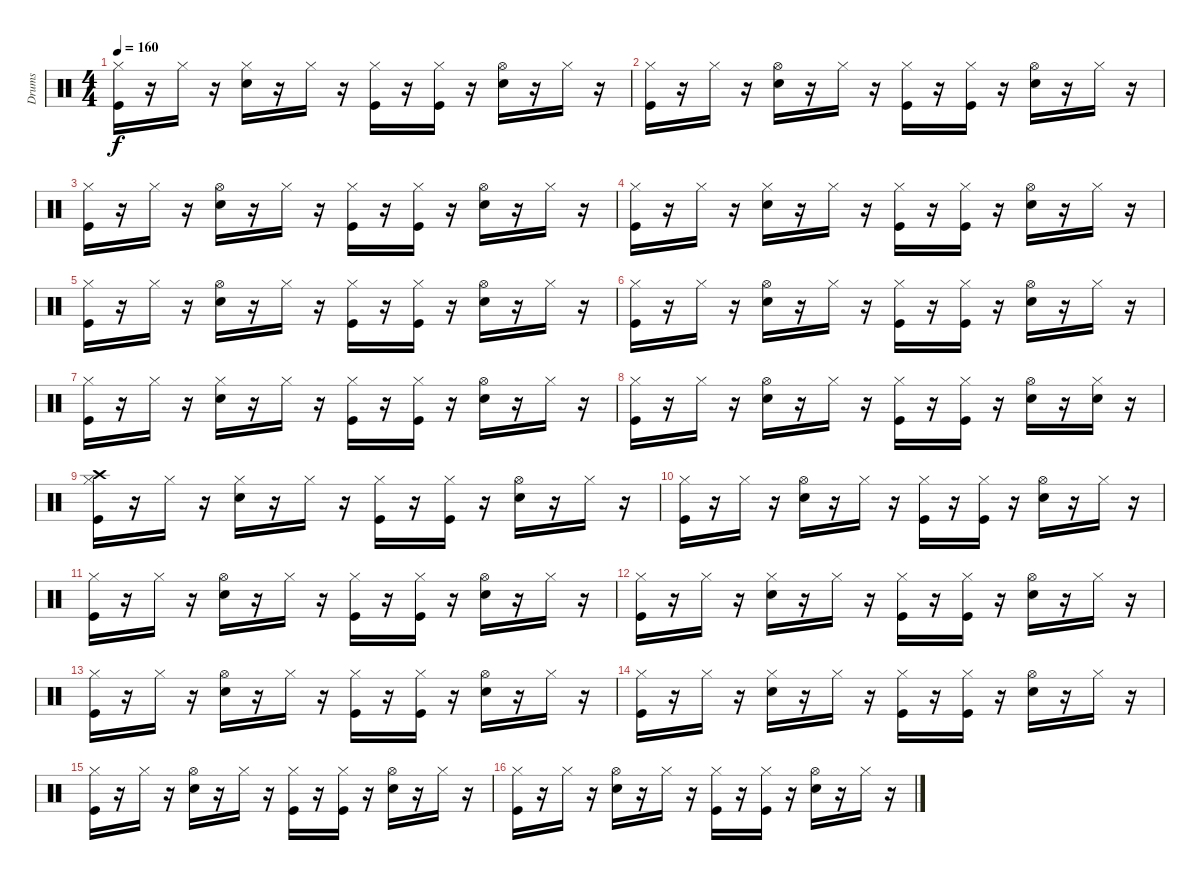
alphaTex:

\track ("Drums" "Drums") {instrument percussion}
\staff {score}
\articulation defaults
\ts (4 4)
\tempo 160
\clef neutral
\ks c
("Hi-Hat (closed)" "Kick (hit)").16{dy f} r.16 "Hi-Hat (closed)".16 r.16 ("Hi-Hat (closed)" "Snare (hit) 2").16 r.16 "Hi-Hat (closed)".16 r.16 ("Hi-Hat (closed)" "Kick (hit)").16 r.16 ("Kick (hit)" "Hi-Hat (closed)").16 r.16 ("Hi-Hat (open)" "Snare (hit) 2").16 r.16 "Hi-Hat (closed)".16 r.16 |
("Hi-Hat (closed)" "Kick (hit)").16 r.16 "Hi-Hat (closed)".16 r.16 ("Hi-Hat (open)" "Snare (hit) 2").16 r.16 "Hi-Hat (closed)".16 r.16 ("Hi-Hat (closed)" "Kick (hit)").16 r.16 ("Kick (hit)" "Hi-Hat (closed)").16 r.16 ("Hi-Hat (open)" "Snare (hit) 2").16 r.16 "Hi-Hat (closed)".16 r.16 |
("Hi-Hat (closed)" "Kick (hit)").16 r.16 "Hi-Hat (closed)".16 r.16 ("Hi-Hat (open)" "Snare (hit) 2").16 r.16 "Hi-Hat (closed)".16 r.16 ("Hi-Hat (closed)" "Kick (hit)").16 r.16 ("Kick (hit)" "Hi-Hat (closed)").16 r.16 ("Hi-Hat (open)" "Snare (hit) 2").16 r.16 "Hi-Hat (closed)".16 r.16 |
("Hi-Hat (closed)" "Kick (hit)").16 r.16 "Hi-Hat (closed)".16 r.16 ("Hi-Hat (closed)" "Snare (hit) 2").16 r.16 "Hi-Hat (closed)".16 r.16 ("Hi-Hat (closed)" "Kick (hit)").16 r.16 ("Kick (hit)" "Hi-Hat (closed)").16 r.16 ("Hi-Hat (open)" "Snare (hit) 2").16 r.16 "Hi-Hat (closed)".16 r.16 |
("Hi-Hat (closed)" "Kick (hit)").16 r.16 "Hi-Hat (closed)".16 r.16 ("Hi-Hat (open)" "Snare (hit) 2").16 r.16 "Hi-Hat (closed)".16 r.16 ("Hi-Hat (closed)" "Kick (hit)").16 r.16 ("Kick (hit)" "Hi-Hat (closed)").16 r.16 ("Hi-Hat (open)" "Snare (hit) 2").16 r.16 "Hi-Hat (closed)".16 r.16 |
("Hi-Hat (closed)" "Kick (hit)").16 r.16 "Hi-Hat (closed)".16 r.16 ("Hi-Hat (open)" "Snare (hit) 2").16 r.16 "Hi-Hat (closed)".16 r.16 ("Hi-Hat (closed)" "Kick (hit)").16 r.16 ("Kick (hit)" "Hi-Hat (closed)").16 r.16 ("Hi-Hat (open)" "Snare (hit) 2").16 r.16 "Hi-Hat (closed)".16 r.16 |
("Hi-Hat (closed)" "Kick (hit)").16 r.16 "Hi-Hat (closed)".16 r.16 ("Hi-Hat (closed)" "Snare (hit) 2").16 r.16 "Hi-Hat (closed)".16 r.16 ("Hi-Hat (closed)" "Kick (hit)").16 r.16 ("Kick (hit)" "Hi-Hat (closed)").16 r.16 ("Hi-Hat (open)" "Snare (hit) 2").16 r.16 "Hi-Hat (closed)".16 r.16 |
("Hi-Hat (closed)" "Kick (hit)").16 r.16 "Hi-Hat (closed)".16 r.16 ("Hi-Hat (open)" "Snare (hit) 2").16 r.16 "Hi-Hat (closed)".16 r.16 ("Hi-Hat (closed)" "Kick (hit)").16 r.16 ("Kick (hit)" "Hi-Hat (closed)").16 r.16 ("Hi-Hat (open)" "Snare (hit) 2").16 r.16 ("Snare (hit) 2" "Hi-Hat (closed)").16 r.16 |
("Crash high (hit)" "Hi-Hat (closed)" "Kick (hit)").16 r.16 "Hi-Hat (closed)".16 r.16 ("Hi-Hat (closed)" "Snare (hit) 2").16 r.16 "Hi-Hat (closed)".16 r.16 ("Hi-Hat (closed)" "Kick (hit)").16 r.16 ("Kick (hit)" "Hi-Hat (closed)").16 r.16 ("Hi-Hat (open)" "Snare (hit) 2").16 r.16 "Hi-Hat (closed)".16 r.16 |
("Hi-Hat (closed)" "Kick (hit)").16 r.16 "Hi-Hat (closed)".16 r.16 ("Hi-Hat (open)" "Snare (hit) 2").16 r.16 "Hi-Hat (closed)".16 r.16 ("Hi-Hat (closed)" "Kick (hit)").16 r.16 ("Kick (hit)" "Hi-Hat (closed)").16 r.16 ("Hi-Hat (open)" "Snare (hit) 2").16 r.16 "Hi-Hat (closed)".16 r.16 |
("Hi-Hat (closed)" "Kick (hit)").16 r.16 "Hi-Hat (closed)".16 r.16 ("Hi-Hat (open)" "Snare (hit) 2").16 r.16 "Hi-Hat (closed)".16 r.16 ("Hi-Hat (closed)" "Kick (hit)").16 r.16 ("Kick (hit)" "Hi-Hat (closed)").16 r.16 ("Hi-Hat (open)" "Snare (hit) 2").16 r.16 "Hi-Hat (closed)".16 r.16 |
("Hi-Hat (closed)" "Kick (hit)").16 r.16 "Hi-Hat (closed)".16 r.16 ("Hi-Hat (closed)" "Snare (hit) 2").16 r.16 "Hi-Hat (closed)".16 r.16 ("Hi-Hat (closed)" "Kick (hit)").16 r.16 ("Kick (hit)" "Hi-Hat (closed)").16 r.16 ("Hi-Hat (open)" "Snare (hit) 2").16 r.16 "Hi-Hat (closed)".16 r.16 |
("Hi-Hat (closed)" "Kick (hit)").16 r.16 "Hi-Hat (closed)".16 r.16 ("Hi-Hat (open)" "Snare (hit) 2").16 r.16 "Hi-Hat (closed)".16 r.16 ("Hi-Hat (closed)" "Kick (hit)").16 r.16 ("Kick (hit)" "Hi-Hat (closed)").16 r.16 ("Hi-Hat (open)" "Snare (hit) 2").16 r.16 "Hi-Hat (closed)".16 r.16 |
("Hi-Hat (closed)" "Kick (hit)").16 r.16 "Hi-Hat (closed)".16 r.16 ("Hi-Hat (closed)" "Snare (hit) 2").16 r.16 "Hi-Hat (closed)".16 r.16 ("Hi-Hat (closed)" "Kick (hit)").16 r.16 ("Kick (hit)" "Hi-Hat (closed)").16 r.16 ("Hi-Hat (open)" "Snare (hit) 2").16 r.16 "Hi-Hat (closed)".16 r.16 |
("Hi-Hat (closed)" "Kick (hit)").16 r.16 "Hi-Hat (closed)".16 r.16 ("Hi-Hat (open)" "Snare (hit) 2").16 r.16 "Hi-Hat (closed)".16 r.16 ("Hi-Hat (closed)" "Kick (hit)").16 r.16 ("Kick (hit)" "Hi-Hat (closed)").16 r.16 ("Hi-Hat (open)" "Snare (hit) 2").16 r.16 "Hi-Hat (closed)".16 r.16 |
("Hi-Hat (closed)" "Kick (hit)").16 r.16 "Hi-Hat (closed)".16 r.16 ("Hi-Hat (open)" "Snare (hit) 2").16 r.16 "Hi-Hat (closed)".16 r.16 ("Hi-Hat (closed)" "Kick (hit)").16 r.16 ("Kick (hit)" "Hi-Hat (closed)").16 r.16 ("Hi-Hat (open)" "Snare (hit) 2").16 r.16 "Hi-Hat (closed)".16 r.16
